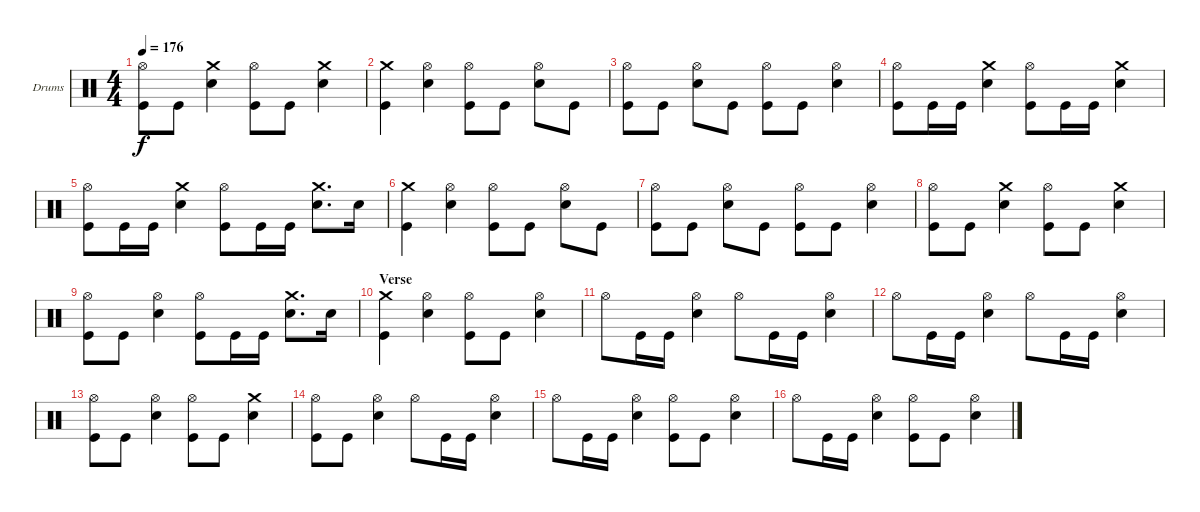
\bracketExtendMode groupsimilarinstruments
\firstSystemTrackNameOrientation horizontal
\otherSystemsTrackNameOrientation horizontal
\track ("Drums" "Drums") {instrument percussion}
\staff {score}
\articulation defaults
\ts (4 4)
\tempo 176
\clef neutral
\ks c
("Hi-Hat (open)" "Kick (hit)").8{dy f} "Kick (hit)".8 ("Crash medium (hit)" "Snare (hit) 2").4 ("Hi-Hat (open)" "Kick (hit)").8 "Kick (hit)".8 ("Crash medium (hit)" "Snare (hit) 2").4 |
("Kick (hit)" "Crash medium (hit)").4 ("Hi-Hat (open)" "Snare (hit) 2").4 ("Hi-Hat (open)" "Kick (hit)").8 "Kick (hit)".8 ("Hi-Hat (open)" "Snare (hit) 2").8 "Kick (hit)".8 |
("Hi-Hat (open)" "Kick (hit)").8 "Kick (hit)".8 ("Hi-Hat (open)" "Snare (hit) 2").8 "Kick (hit)".8 ("Hi-Hat (open)" "Kick (hit)").8 "Kick (hit)".8 ("Snare (hit) 2" "Hi-Hat (open)").4 |
("Hi-Hat (open)" "Kick (hit)").8 "Kick (hit)".16 "Kick (hit)".16 ("Snare (hit) 2" "Crash medium (hit)").4 ("Hi-Hat (open)" "Kick (hit)").8 "Kick (hit)".16 "Kick (hit)".16 ("Snare (hit) 2" "Crash medium (hit)").4 |
("Hi-Hat (open)" "Kick (hit)").8 "Kick (hit)".16 "Kick (hit)".16 ("Snare (hit) 2" "Crash medium (hit)").4 ("Hi-Hat (open)" "Kick (hit)").8 "Kick (hit)".16 "Kick (hit)".16 ("Snare (hit) 2" "Crash medium (hit)").8{d} "Snare (hit) 2".16 |
("Kick (hit)" "Crash medium (hit)").4 ("Hi-Hat (open)" "Snare (hit) 2").4 ("Hi-Hat (open)" "Kick (hit)").8 "Kick (hit)".8 ("Hi-Hat (open)" "Snare (hit) 2").8 "Kick (hit)".8 |
("Hi-Hat (open)" "Kick (hit)").8 "Kick (hit)".8 ("Hi-Hat (open)" "Snare (hit) 2").8 "Kick (hit)".8 ("Hi-Hat (open)" "Kick (hit)").8 "Kick (hit)".8 ("Snare (hit) 2" "Hi-Hat (open)").4 |
("Hi-Hat (open)" "Kick (hit)").8 "Kick (hit)".8 ("Snare (hit) 2" "Crash medium (hit)").4 ("Hi-Hat (open)" "Kick (hit)").8 "Kick (hit)".8 ("Snare (hit) 2" "Crash medium (hit)").4 |
("Hi-Hat (open)" "Kick (hit)").8 "Kick (hit)".8 ("Snare (hit) 2" "Hi-Hat (open)").4 ("Hi-Hat (open)" "Kick (hit)").8 "Kick (hit)".16 "Kick (hit)".16 ("Snare (hit) 2" "Crash medium (hit)").8{d} "Snare (hit) 2".16 |
\section ("" "Verse")
("Crash medium (hit)" "Kick (hit)").4 ("Hi-Hat (open)" "Snare (hit) 2").4 ("Hi-Hat (open)" "Kick (hit)").8 "Kick (hit)".8 ("Hi-Hat (open)" "Snare (hit) 2").4 |
"Hi-Hat (open)".8 "Kick (hit)".16 "Kick (hit)".16 ("Hi-Hat (open)" "Snare (hit) 2").4 "Hi-Hat (open)".8 "Kick (hit)".16 "Kick (hit)".16 ("Hi-Hat (open)" "Snare (hit) 2").4 |
"Hi-Hat (open)".8 "Kick (hit)".16 "Kick (hit)".16 ("Hi-Hat (open)" "Snare (hit) 2").4 "Hi-Hat (open)".8 "Kick (hit)".16 "Kick (hit)".16 ("Hi-Hat (open)" "Snare (hit) 2").4 |
("Kick (hit)" "Hi-Hat (open)").8 "Kick (hit)".8 ("Snare (hit) 2" "Hi-Hat (open)").4 ("Hi-Hat (open)" "Kick (hit)").8 "Kick (hit)".8 ("Crash medium (hit)" "Snare (hit) 2").4 |
("Kick (hit)" "Hi-Hat (open)").8 "Kick (hit)".8 ("Hi-Hat (open)" "Snare (hit) 2").4 "Hi-Hat (open)".8 "Kick (hit)".16 "Kick (hit)".16 ("Hi-Hat (open)" "Snare (hit) 2").4 |
"Hi-Hat (open)".8 "Kick (hit)".16 "Kick (hit)".16 ("Hi-Hat (open)" "Snare (hit) 2").4 ("Hi-Hat (open)" "Kick (hit)").8 "Kick (hit)".8 ("Hi-Hat (open)" "Snare (hit) 2").4 |
"Hi-Hat (open)".8 "Kick (hit)".16 "Kick (hit)".16 ("Hi-Hat (open)" "Snare (hit) 2").4 ("Hi-Hat (open)" "Kick (hit)").8 "Kick (hit)".8 ("Hi-Hat (open)" "Snare (hit) 2").4
